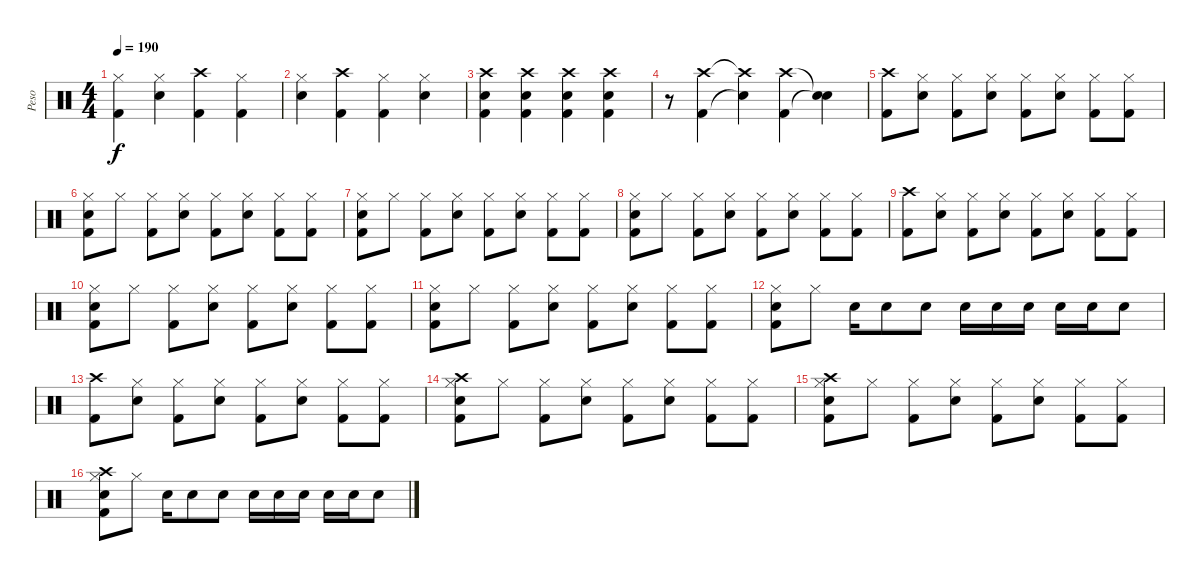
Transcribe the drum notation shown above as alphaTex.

\track ("Peso" "Peso") {instrument percussion}
\staff {score}
\articulation defaults
\ts (4 4)
\tempo 190
\clef neutral
\ks c
("Hi-Hat (closed)" "Kick (hit) 2").4{dy f} ("Hi-Hat (closed)" "Snare (hit) 2").4 ("Crash high (hit)" "Kick (hit) 2").4 ("Hi-Hat (closed)" "Kick (hit) 2").4 |
("Hi-Hat (closed)" "Snare (hit) 2").4 ("Crash high (hit)" "Kick (hit) 2").4 ("Hi-Hat (closed)" "Kick (hit) 2").4 ("Hi-Hat (closed)" "Snare (hit) 2").4 |
("Crash high (hit)" "Snare (hit) 2" "Kick (hit) 2").4 ("Crash high (hit)" "Snare (hit) 2" "Kick (hit) 2").4 ("Crash high (hit)" "Snare (hit) 2" "Kick (hit) 2").4 ("Crash high (hit)" "Snare (hit) 2" "Kick (hit) 2").4 |
r.8 ("Crash high (hit)" "Kick (hit) 2").4 ("Crash high (hit)"{t} "Snare (hit)"{t}).4 ("Crash high (hit)" "Kick (hit) 2").4 ("Snare (hit)"{t} "Snare (hit)"{t}).4 |
("Crash high (hit)" "Kick (hit) 2").8 ("Hi-Hat (closed)" "Snare (hit) 2").8 ("Hi-Hat (closed)" "Kick (hit) 2").8 ("Hi-Hat (closed)" "Snare (hit) 2").8 ("Hi-Hat (closed)" "Kick (hit) 2").8 ("Hi-Hat (closed)" "Snare (hit) 2").8 ("Hi-Hat (closed)" "Kick (hit) 2").8 ("Hi-Hat (closed)" "Kick (hit) 2").8 |
("Hi-Hat (closed)" "Snare (hit) 2" "Kick (hit) 2").8 "Hi-Hat (closed)".8 ("Hi-Hat (closed)" "Kick (hit) 2").8 ("Hi-Hat (closed)" "Snare (hit) 2").8 ("Hi-Hat (closed)" "Kick (hit) 2").8 ("Hi-Hat (closed)" "Snare (hit) 2").8 ("Hi-Hat (closed)" "Kick (hit) 2").8 ("Hi-Hat (closed)" "Kick (hit) 2").8 |
("Hi-Hat (closed)" "Snare (hit) 2" "Kick (hit) 2").8 "Hi-Hat (closed)".8 ("Hi-Hat (closed)" "Kick (hit) 2").8 ("Hi-Hat (closed)" "Snare (hit) 2").8 ("Hi-Hat (closed)" "Kick (hit) 2").8 ("Hi-Hat (closed)" "Snare (hit) 2").8 ("Hi-Hat (closed)" "Kick (hit) 2").8 ("Hi-Hat (closed)" "Kick (hit) 2").8 |
("Hi-Hat (closed)" "Snare (hit) 2" "Kick (hit) 2").8 "Hi-Hat (closed)".8 ("Hi-Hat (closed)" "Kick (hit) 2").8 ("Hi-Hat (closed)" "Snare (hit) 2").8 ("Hi-Hat (closed)" "Kick (hit) 2").8 ("Hi-Hat (closed)" "Snare (hit) 2").8 ("Hi-Hat (closed)" "Kick (hit) 2").8 ("Hi-Hat (closed)" "Kick (hit) 2").8 |
("Crash high (hit)" "Kick (hit) 2").8 ("Hi-Hat (closed)" "Snare (hit) 2").8 ("Hi-Hat (closed)" "Kick (hit) 2").8 ("Hi-Hat (closed)" "Snare (hit) 2").8 ("Hi-Hat (closed)" "Kick (hit) 2").8 ("Hi-Hat (closed)" "Snare (hit) 2").8 ("Hi-Hat (closed)" "Kick (hit) 2").8 ("Hi-Hat (closed)" "Kick (hit) 2").8 |
("Hi-Hat (closed)" "Snare (hit) 2" "Kick (hit) 2").8 "Hi-Hat (closed)".8 ("Hi-Hat (closed)" "Kick (hit) 2").8 ("Hi-Hat (closed)" "Snare (hit) 2").8 ("Hi-Hat (closed)" "Kick (hit) 2").8 ("Hi-Hat (closed)" "Snare (hit) 2").8 ("Hi-Hat (closed)" "Kick (hit) 2").8 ("Hi-Hat (closed)" "Kick (hit) 2").8 |
("Hi-Hat (closed)" "Snare (hit) 2" "Kick (hit) 2").8 "Hi-Hat (closed)".8 ("Hi-Hat (closed)" "Kick (hit) 2").8 ("Hi-Hat (closed)" "Snare (hit) 2").8 ("Hi-Hat (closed)" "Kick (hit) 2").8 ("Hi-Hat (closed)" "Snare (hit) 2").8 ("Hi-Hat (closed)" "Kick (hit) 2").8 ("Hi-Hat (closed)" "Kick (hit) 2").8 |
("Hi-Hat (closed)" "Snare (hit) 2" "Kick (hit) 2").8 "Hi-Hat (closed)".8 "Snare (hit) 2".16 "Snare (hit) 2".8 "Snare (hit) 2".8 "Snare (hit) 2".16 "Snare (hit) 2".16 "Snare (hit) 2".16 "Snare (hit) 2".16 "Snare (hit) 2".16 "Snare (hit) 2".8 |
("Crash high (hit)" "Kick (hit) 2").8 ("Hi-Hat (closed)" "Snare (hit) 2").8 ("Hi-Hat (closed)" "Kick (hit) 2").8 ("Hi-Hat (closed)" "Snare (hit) 2").8 ("Hi-Hat (closed)" "Kick (hit) 2").8 ("Hi-Hat (closed)" "Snare (hit) 2").8 ("Hi-Hat (closed)" "Kick (hit) 2").8 ("Hi-Hat (closed)" "Kick (hit) 2").8 |
("Crash high (hit)" "Hi-Hat (closed)" "Snare (hit) 2" "Kick (hit) 2").8 "Hi-Hat (closed)".8 ("Hi-Hat (closed)" "Kick (hit) 2").8 ("Hi-Hat (closed)" "Snare (hit) 2").8 ("Hi-Hat (closed)" "Kick (hit) 2").8 ("Hi-Hat (closed)" "Snare (hit) 2").8 ("Hi-Hat (closed)" "Kick (hit) 2").8 ("Hi-Hat (closed)" "Kick (hit) 2").8 |
("Crash high (hit)" "Hi-Hat (closed)" "Snare (hit) 2" "Kick (hit) 2").8 "Hi-Hat (closed)".8 ("Hi-Hat (closed)" "Kick (hit) 2").8 ("Hi-Hat (closed)" "Snare (hit) 2").8 ("Hi-Hat (closed)" "Kick (hit) 2").8 ("Hi-Hat (closed)" "Snare (hit) 2").8 ("Hi-Hat (closed)" "Kick (hit) 2").8 ("Hi-Hat (closed)" "Kick (hit) 2").8 |
("Crash high (hit)" "Hi-Hat (closed)" "Snare (hit) 2" "Kick (hit) 2").8 "Hi-Hat (closed)".8 "Snare (hit) 2".16 "Snare (hit) 2".8 "Snare (hit) 2".8 "Snare (hit) 2".16 "Snare (hit) 2".16 "Snare (hit) 2".16 "Snare (hit) 2".16 "Snare (hit) 2".16 "Snare (hit) 2".8
